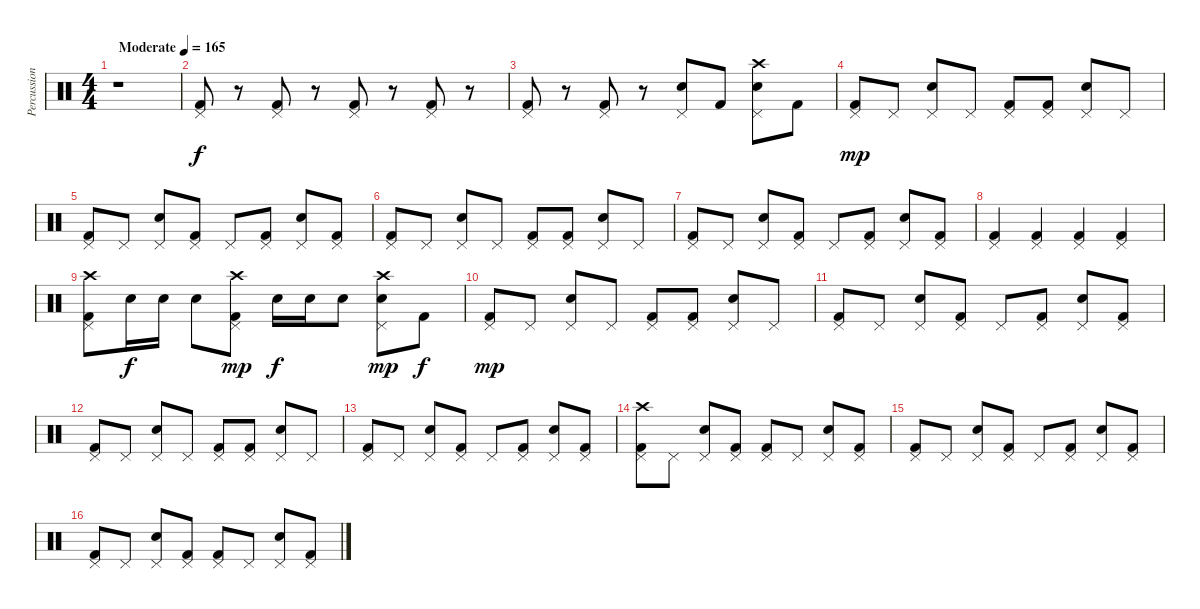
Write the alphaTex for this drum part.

\track ("Percussion" "Percussion") {instrument percussion}
\staff {score}
\articulation defaults
\ts (4 4)
\tempo (165 "Moderate")
\clef neutral
\ks c
r.1{dy f} |
("Pedal Hi-Hat (hit)" "Kick (hit) 2").8 r.8 ("Pedal Hi-Hat (hit)" "Kick (hit) 2").8 r.8 ("Pedal Hi-Hat (hit)" "Kick (hit) 2").8 r.8 ("Pedal Hi-Hat (hit)" "Kick (hit) 2").8 r.8 |
("Pedal Hi-Hat (hit)" "Kick (hit) 2").8 r.8 ("Pedal Hi-Hat (hit)" "Kick (hit) 2").8 r.8 ("Snare (hit) 2" "Pedal Hi-Hat (hit)").8 "Kick (hit) 2".8 ("Crash high (hit)" "Snare (hit) 2" "Pedal Hi-Hat (hit)").8 "Kick (hit) 2".8 |
("Pedal Hi-Hat (hit)" "Kick (hit) 2").8{dy mp} "Pedal Hi-Hat (hit)".8 ("Pedal Hi-Hat (hit)" "Snare (hit) 2").8 "Pedal Hi-Hat (hit)".8 ("Pedal Hi-Hat (hit)" "Kick (hit) 2").8 ("Pedal Hi-Hat (hit)" "Kick (hit) 2").8 ("Pedal Hi-Hat (hit)" "Snare (hit) 2").8 "Pedal Hi-Hat (hit)".8 |
("Pedal Hi-Hat (hit)" "Kick (hit) 2").8 "Pedal Hi-Hat (hit)".8 ("Pedal Hi-Hat (hit)" "Snare (hit) 2").8 ("Pedal Hi-Hat (hit)" "Kick (hit) 2").8 "Pedal Hi-Hat (hit)".8 ("Pedal Hi-Hat (hit)" "Kick (hit) 2").8 ("Pedal Hi-Hat (hit)" "Snare (hit) 2").8 ("Pedal Hi-Hat (hit)" "Kick (hit) 2").8 |
("Pedal Hi-Hat (hit)" "Kick (hit) 2").8 "Pedal Hi-Hat (hit)".8 ("Pedal Hi-Hat (hit)" "Snare (hit) 2").8 "Pedal Hi-Hat (hit)".8 ("Pedal Hi-Hat (hit)" "Kick (hit) 2").8 ("Pedal Hi-Hat (hit)" "Kick (hit) 2").8 ("Pedal Hi-Hat (hit)" "Snare (hit) 2").8 "Pedal Hi-Hat (hit)".8 |
("Pedal Hi-Hat (hit)" "Kick (hit) 2").8 "Pedal Hi-Hat (hit)".8 ("Pedal Hi-Hat (hit)" "Snare (hit) 2").8 ("Pedal Hi-Hat (hit)" "Kick (hit) 2").8 "Pedal Hi-Hat (hit)".8 ("Pedal Hi-Hat (hit)" "Kick (hit) 2").8 ("Pedal Hi-Hat (hit)" "Snare (hit) 2").8 ("Pedal Hi-Hat (hit)" "Kick (hit) 2").8 |
("Pedal Hi-Hat (hit)" "Kick (hit) 2").4 ("Pedal Hi-Hat (hit)" "Kick (hit) 2").4 ("Pedal Hi-Hat (hit)" "Kick (hit) 2").4 ("Pedal Hi-Hat (hit)" "Kick (hit) 2").4 |
("Pedal Hi-Hat (hit)" "Kick (hit) 2" "Crash high (hit)").8 "Snare (hit) 2".16{dy f} "Snare (hit) 2".16 "Snare (hit) 2".8 ("Pedal Hi-Hat (hit)" "Kick (hit) 2" "Crash high (hit)").8{dy mp} "Snare (hit) 2".16{dy f} "Snare (hit) 2".16 "Snare (hit) 2".8 ("Pedal Hi-Hat (hit)" "Snare (hit) 2" "Crash high (hit)").8{dy mp} "Kick (hit) 2".8{dy f} |
("Pedal Hi-Hat (hit)" "Kick (hit) 2").8{dy mp} "Pedal Hi-Hat (hit)".8 ("Pedal Hi-Hat (hit)" "Snare (hit) 2").8 "Pedal Hi-Hat (hit)".8 ("Pedal Hi-Hat (hit)" "Kick (hit) 2").8 ("Pedal Hi-Hat (hit)" "Kick (hit) 2").8 ("Pedal Hi-Hat (hit)" "Snare (hit) 2").8 "Pedal Hi-Hat (hit)".8 |
("Pedal Hi-Hat (hit)" "Kick (hit) 2").8 "Pedal Hi-Hat (hit)".8 ("Pedal Hi-Hat (hit)" "Snare (hit) 2").8 ("Pedal Hi-Hat (hit)" "Kick (hit) 2").8 "Pedal Hi-Hat (hit)".8 ("Pedal Hi-Hat (hit)" "Kick (hit) 2").8 ("Pedal Hi-Hat (hit)" "Snare (hit) 2").8 ("Pedal Hi-Hat (hit)" "Kick (hit) 2").8 |
("Pedal Hi-Hat (hit)" "Kick (hit) 2").8 "Pedal Hi-Hat (hit)".8 ("Pedal Hi-Hat (hit)" "Snare (hit) 2").8 "Pedal Hi-Hat (hit)".8 ("Pedal Hi-Hat (hit)" "Kick (hit) 2").8 ("Pedal Hi-Hat (hit)" "Kick (hit) 2").8 ("Pedal Hi-Hat (hit)" "Snare (hit) 2").8 "Pedal Hi-Hat (hit)".8 |
("Pedal Hi-Hat (hit)" "Kick (hit) 2").8 "Pedal Hi-Hat (hit)".8 ("Pedal Hi-Hat (hit)" "Snare (hit) 2").8 ("Pedal Hi-Hat (hit)" "Kick (hit) 2").8 "Pedal Hi-Hat (hit)".8 ("Pedal Hi-Hat (hit)" "Kick (hit) 2").8 ("Pedal Hi-Hat (hit)" "Snare (hit) 2").8 ("Pedal Hi-Hat (hit)" "Kick (hit) 2").8 |
("Crash high (hit)" "Pedal Hi-Hat (hit)" "Kick (hit) 2").8 "Pedal Hi-Hat (hit)".8 ("Snare (hit) 2" "Pedal Hi-Hat (hit)").8 ("Kick (hit) 2" "Pedal Hi-Hat (hit)").8 ("Kick (hit) 2" "Pedal Hi-Hat (hit)").8 "Pedal Hi-Hat (hit)".8 ("Snare (hit) 2" "Pedal Hi-Hat (hit)").8 ("Kick (hit) 2" "Pedal Hi-Hat (hit)").8 |
("Kick (hit) 2" "Pedal Hi-Hat (hit)").8 "Pedal Hi-Hat (hit)".8 ("Pedal Hi-Hat (hit)" "Snare (hit) 2").8 ("Pedal Hi-Hat (hit)" "Kick (hit) 2").8 "Pedal Hi-Hat (hit)".8 ("Pedal Hi-Hat (hit)" "Kick (hit) 2").8 ("Pedal Hi-Hat (hit)" "Snare (hit) 2").8 ("Pedal Hi-Hat (hit)" "Kick (hit) 2").8 |
("Pedal Hi-Hat (hit)" "Kick (hit) 2").8 "Pedal Hi-Hat (hit)".8 ("Snare (hit) 2" "Pedal Hi-Hat (hit)").8 ("Kick (hit) 2" "Pedal Hi-Hat (hit)").8 ("Kick (hit) 2" "Pedal Hi-Hat (hit)").8 "Pedal Hi-Hat (hit)".8 ("Snare (hit) 2" "Pedal Hi-Hat (hit)").8 ("Kick (hit) 2" "Pedal Hi-Hat (hit)").8
